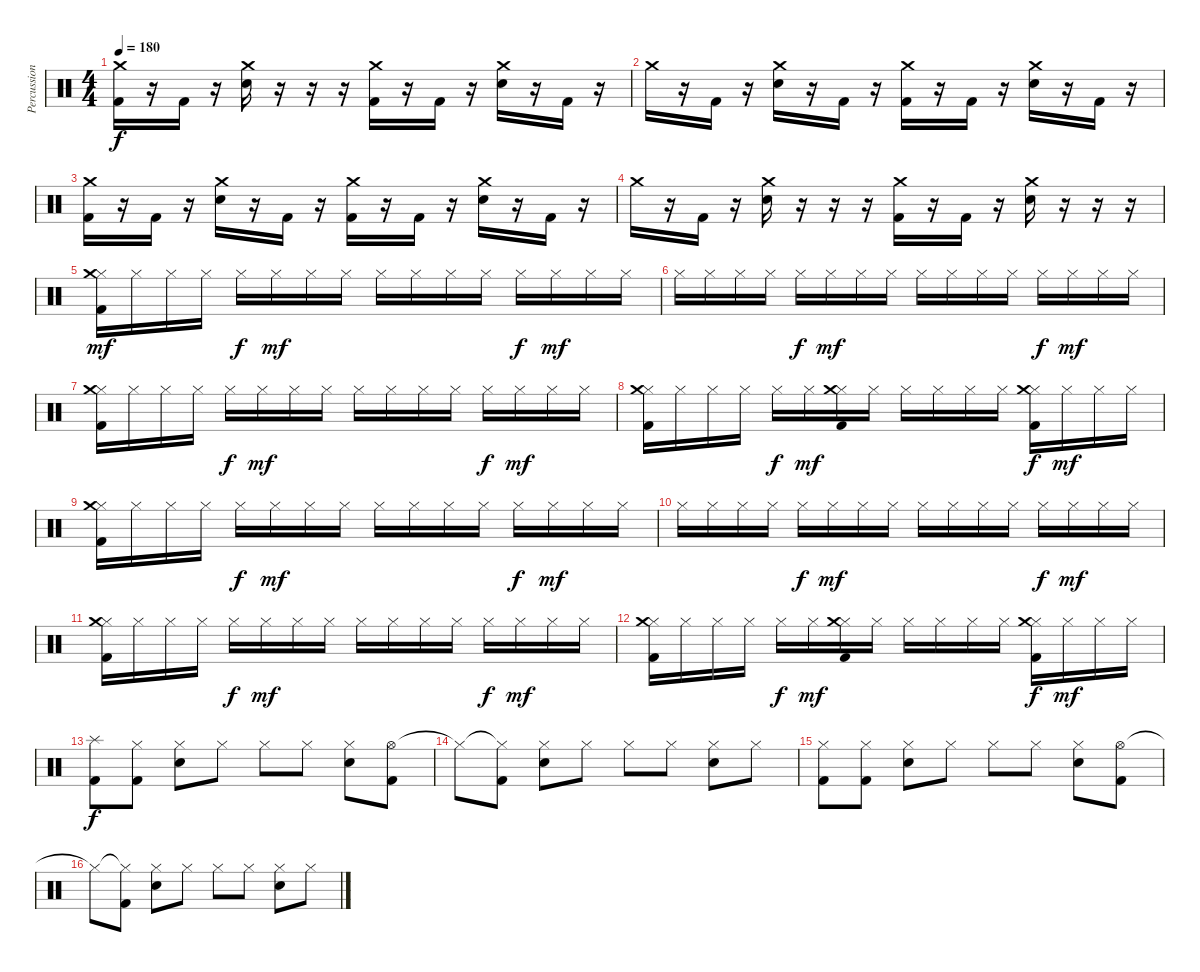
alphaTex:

\track ("Percussion" "Percussion") {instrument percussion}
\staff {score}
\articulation defaults
\ts (4 4)
\tempo 180
\clef neutral
\ks c
("Crash medium (hit)" "Kick (hit) 2").16{dy f} r.16 "Kick (hit) 2".16 r.16 ("Crash medium (hit)" "Snare (hit) 2").16 r.16 r.16 r.16 ("Crash medium (hit)" "Kick (hit) 2").16 r.16 "Kick (hit) 2".16 r.16 ("Crash medium (hit)" "Snare (hit) 2").16 r.16 "Kick (hit) 2".16 r.16 |
"Crash medium (hit)".16 r.16 "Kick (hit) 2".16 r.16 ("Crash medium (hit)" "Snare (hit) 2").16 r.16 "Kick (hit) 2".16 r.16 ("Crash medium (hit)" "Kick (hit) 2").16 r.16 "Kick (hit) 2".16 r.16 ("Crash medium (hit)" "Snare (hit) 2").16 r.16 "Kick (hit) 2".16 r.16 |
("Crash medium (hit)" "Kick (hit) 2").16 r.16 "Kick (hit) 2".16 r.16 ("Crash medium (hit)" "Snare (hit) 2").16 r.16 "Kick (hit) 2".16 r.16 ("Crash medium (hit)" "Kick (hit) 2").16 r.16 "Kick (hit) 2".16 r.16 ("Crash medium (hit)" "Snare (hit) 2").16 r.16 "Kick (hit) 2".16 r.16 |
"Crash medium (hit)".16 r.16 "Kick (hit) 2".16 r.16 ("Crash medium (hit)" "Snare (hit) 2").16 r.16 r.16 r.16 ("Crash medium (hit)" "Kick (hit) 2").16 r.16 "Kick (hit) 2".16 r.16 ("Crash medium (hit)" "Snare (hit) 2").16 r.16 r.16 r.16 |
("Hi-Hat (closed)" "Crash medium (hit)" "Kick (hit) 2").16{dy mf} "Hi-Hat (closed)".16 "Hi-Hat (closed)".16 "Hi-Hat (closed)".16 "Hi-Hat (closed)".16{dy f} "Hi-Hat (closed)".16{dy mf} "Hi-Hat (closed)".16 "Hi-Hat (closed)".16 "Hi-Hat (closed)".16 "Hi-Hat (closed)".16 "Hi-Hat (closed)".16 "Hi-Hat (closed)".16 "Hi-Hat (closed)".16{dy f} "Hi-Hat (closed)".16{dy mf} "Hi-Hat (closed)".16 "Hi-Hat (closed)".16 |
"Hi-Hat (closed)".16 "Hi-Hat (closed)".16 "Hi-Hat (closed)".16 "Hi-Hat (closed)".16 "Hi-Hat (closed)".16{dy f} "Hi-Hat (closed)".16{dy mf} "Hi-Hat (closed)".16 "Hi-Hat (closed)".16 "Hi-Hat (closed)".16 "Hi-Hat (closed)".16 "Hi-Hat (closed)".16 "Hi-Hat (closed)".16 "Hi-Hat (closed)".16{dy f} "Hi-Hat (closed)".16{dy mf} "Hi-Hat (closed)".16 "Hi-Hat (closed)".16 |
("Hi-Hat (closed)" "Crash medium (hit)" "Kick (hit) 2").16 "Hi-Hat (closed)".16 "Hi-Hat (closed)".16 "Hi-Hat (closed)".16 "Hi-Hat (closed)".16{dy f} "Hi-Hat (closed)".16{dy mf} "Hi-Hat (closed)".16 "Hi-Hat (closed)".16 "Hi-Hat (closed)".16 "Hi-Hat (closed)".16 "Hi-Hat (closed)".16 "Hi-Hat (closed)".16 "Hi-Hat (closed)".16{dy f} "Hi-Hat (closed)".16{dy mf} "Hi-Hat (closed)".16 "Hi-Hat (closed)".16 |
("Hi-Hat (closed)" "Crash medium (hit)" "Kick (hit) 2").16 "Hi-Hat (closed)".16 "Hi-Hat (closed)".16 "Hi-Hat (closed)".16 "Hi-Hat (closed)".16{dy f} "Hi-Hat (closed)".16{dy mf} ("Hi-Hat (closed)" "Crash medium (hit)" "Kick (hit) 2").16 "Hi-Hat (closed)".16 "Hi-Hat (closed)".16 "Hi-Hat (closed)".16 "Hi-Hat (closed)".16 "Hi-Hat (closed)".16 ("Hi-Hat (closed)" "Crash medium (hit)" "Kick (hit) 2").16{dy f} "Hi-Hat (closed)".16{dy mf} "Hi-Hat (closed)".16 "Hi-Hat (closed)".16 |
("Hi-Hat (closed)" "Crash medium (hit)" "Kick (hit) 2").16 "Hi-Hat (closed)".16 "Hi-Hat (closed)".16 "Hi-Hat (closed)".16 "Hi-Hat (closed)".16{dy f} "Hi-Hat (closed)".16{dy mf} "Hi-Hat (closed)".16 "Hi-Hat (closed)".16 "Hi-Hat (closed)".16 "Hi-Hat (closed)".16 "Hi-Hat (closed)".16 "Hi-Hat (closed)".16 "Hi-Hat (closed)".16{dy f} "Hi-Hat (closed)".16{dy mf} "Hi-Hat (closed)".16 "Hi-Hat (closed)".16 |
"Hi-Hat (closed)".16 "Hi-Hat (closed)".16 "Hi-Hat (closed)".16 "Hi-Hat (closed)".16 "Hi-Hat (closed)".16{dy f} "Hi-Hat (closed)".16{dy mf} "Hi-Hat (closed)".16 "Hi-Hat (closed)".16 "Hi-Hat (closed)".16 "Hi-Hat (closed)".16 "Hi-Hat (closed)".16 "Hi-Hat (closed)".16 "Hi-Hat (closed)".16{dy f} "Hi-Hat (closed)".16{dy mf} "Hi-Hat (closed)".16 "Hi-Hat (closed)".16 |
("Hi-Hat (closed)" "Crash medium (hit)" "Kick (hit) 2").16 "Hi-Hat (closed)".16 "Hi-Hat (closed)".16 "Hi-Hat (closed)".16 "Hi-Hat (closed)".16{dy f} "Hi-Hat (closed)".16{dy mf} "Hi-Hat (closed)".16 "Hi-Hat (closed)".16 "Hi-Hat (closed)".16 "Hi-Hat (closed)".16 "Hi-Hat (closed)".16 "Hi-Hat (closed)".16 "Hi-Hat (closed)".16{dy f} "Hi-Hat (closed)".16{dy mf} "Hi-Hat (closed)".16 "Hi-Hat (closed)".16 |
("Hi-Hat (closed)" "Crash medium (hit)" "Kick (hit) 2").16 "Hi-Hat (closed)".16 "Hi-Hat (closed)".16 "Hi-Hat (closed)".16 "Hi-Hat (closed)".16{dy f} "Hi-Hat (closed)".16{dy mf} ("Hi-Hat (closed)" "Crash medium (hit)" "Kick (hit) 2").16 "Hi-Hat (closed)".16 "Hi-Hat (closed)".16 "Hi-Hat (closed)".16 "Hi-Hat (closed)".16 "Hi-Hat (closed)".16 ("Hi-Hat (closed)" "Crash medium (hit)" "Kick (hit) 2").16{dy f} "Hi-Hat (closed)".16{dy mf} "Hi-Hat (closed)".16 "Hi-Hat (closed)".16 |
("Splash (hit)" "Kick (hit) 2").8{dy f} ("Hi-Hat (closed)" "Kick (hit) 2").8 ("Hi-Hat (closed)" "Snare (hit) 2").8 "Hi-Hat (closed)".8 "Hi-Hat (closed)".8 "Hi-Hat (closed)".8 ("Hi-Hat (closed)" "Snare (hit) 2").8 ("Hi-Hat (open)" "Kick (hit) 2").8 |
"Hi-Hat (closed)"{t}.8 ("Hi-Hat (closed)"{t} "Kick (hit) 2").8 ("Hi-Hat (closed)" "Snare (hit) 2").8 "Hi-Hat (closed)".8 "Hi-Hat (closed)".8 "Hi-Hat (closed)".8 ("Hi-Hat (closed)" "Snare (hit) 2").8 "Hi-Hat (closed)".8 |
("Hi-Hat (closed)" "Kick (hit) 2").8 ("Hi-Hat (closed)" "Kick (hit) 2").8 ("Hi-Hat (closed)" "Snare (hit) 2").8 "Hi-Hat (closed)".8 "Hi-Hat (closed)".8 "Hi-Hat (closed)".8 ("Hi-Hat (closed)" "Snare (hit) 2").8 ("Hi-Hat (open)" "Kick (hit) 2").8 |
"Hi-Hat (closed)"{t}.8 ("Hi-Hat (closed)"{t} "Kick (hit) 2").8 ("Hi-Hat (closed)" "Snare (hit) 2").8 "Hi-Hat (closed)".8 "Hi-Hat (closed)".8 "Hi-Hat (closed)".8 ("Hi-Hat (closed)" "Snare (hit) 2").8 "Hi-Hat (closed)".8
